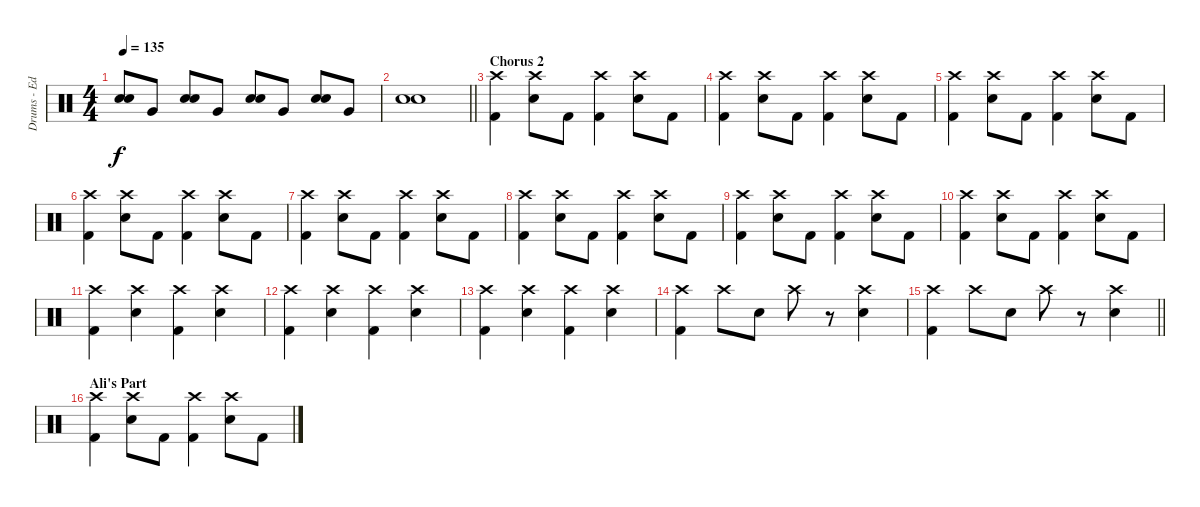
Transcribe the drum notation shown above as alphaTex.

\track ("Drums - Ed Edhus" "Drums - Ed") {instrument percussion bank 127}
\staff {score}
\articulation defaults
\ts (4 4)
\tempo 135
\clef neutral
\ks c
("Snare (hit) 2" "Snare (hit) 2").8{dy f} "Very Low Tom (hit)".8 ("Snare (hit) 2" "Snare (hit) 2").8 "Very Low Tom (hit)".8 ("Snare (hit) 2" "Snare (hit) 2").8 "Very Low Tom (hit)".8 ("Snare (hit) 2" "Snare (hit) 2").8 "Very Low Tom (hit)".8 |
\barLineRight lightlight
("Snare (hit) 2" "Snare (hit) 2").1 |
\section ("" "Chorus 2")
("Crash high (hit)" "Kick (hit) 2").4 ("Crash high (hit)" "Snare (hit) 2").8 "Kick (hit) 2".8 ("Crash high (hit)" "Kick (hit) 2").4 ("Crash high (hit)" "Snare (hit) 2").8 "Kick (hit) 2".8 |
("Crash high (hit)" "Kick (hit) 2").4 ("Crash high (hit)" "Snare (hit) 2").8 "Kick (hit) 2".8 ("Crash high (hit)" "Kick (hit) 2").4 ("Crash high (hit)" "Snare (hit) 2").8 "Kick (hit) 2".8 |
("Crash high (hit)" "Kick (hit) 2").4 ("Crash high (hit)" "Snare (hit) 2").8 "Kick (hit) 2".8 ("Crash high (hit)" "Kick (hit) 2").4 ("Crash high (hit)" "Snare (hit) 2").8 "Kick (hit) 2".8 |
("Crash high (hit)" "Kick (hit) 2").4 ("Crash high (hit)" "Snare (hit) 2").8 "Kick (hit) 2".8 ("Crash high (hit)" "Kick (hit) 2").4 ("Crash high (hit)" "Snare (hit) 2").8 "Kick (hit) 2".8 |
("Crash high (hit)" "Kick (hit) 2").4 ("Crash high (hit)" "Snare (hit) 2").8 "Kick (hit) 2".8 ("Crash high (hit)" "Kick (hit) 2").4 ("Crash high (hit)" "Snare (hit) 2").8 "Kick (hit) 2".8 |
("Crash high (hit)" "Kick (hit) 2").4 ("Crash high (hit)" "Snare (hit) 2").8 "Kick (hit) 2".8 ("Crash high (hit)" "Kick (hit) 2").4 ("Crash high (hit)" "Snare (hit) 2").8 "Kick (hit) 2".8 |
("Crash high (hit)" "Kick (hit) 2").4 ("Crash high (hit)" "Snare (hit) 2").8 "Kick (hit) 2".8 ("Crash high (hit)" "Kick (hit) 2").4 ("Crash high (hit)" "Snare (hit) 2").8 "Kick (hit) 2".8 |
("Crash high (hit)" "Kick (hit) 2").4 ("Crash high (hit)" "Snare (hit) 2").8 "Kick (hit) 2".8 ("Crash high (hit)" "Kick (hit) 2").4 ("Crash high (hit)" "Snare (hit) 2").8 "Kick (hit) 2".8 |
("Crash high (hit)" "Kick (hit) 2").4 ("Crash high (hit)" "Snare (hit) 2").4 ("Crash high (hit)" "Kick (hit) 2").4 ("Crash high (hit)" "Snare (hit) 2").4 |
("Crash high (hit)" "Kick (hit) 2").4 ("Crash high (hit)" "Snare (hit) 2").4 ("Crash high (hit)" "Kick (hit) 2").4 ("Crash high (hit)" "Snare (hit) 2").4 |
("Crash high (hit)" "Kick (hit) 2").4 ("Crash high (hit)" "Snare (hit) 2").4 ("Crash high (hit)" "Kick (hit) 2").4 ("Crash high (hit)" "Snare (hit) 2").4 |
("Crash high (hit)" "Kick (hit) 2").4 "Crash high (hit)".8 "Snare (hit) 2".8 "Crash high (hit)".8 r.8 ("Crash high (hit)" "Snare (hit) 2").4 |
\barLineRight lightlight
("Crash high (hit)" "Kick (hit) 2").4 "Crash high (hit)".8 "Snare (hit) 2".8 "Crash high (hit)".8 r.8 ("Crash high (hit)" "Snare (hit) 2").4 |
\section ("" "Ali's Part")
("Crash high (hit)" "Kick (hit) 2").4 ("Crash high (hit)" "Snare (hit) 2").8 "Kick (hit) 2".8 ("Crash high (hit)" "Kick (hit) 2").4 ("Crash high (hit)" "Snare (hit) 2").8 "Kick (hit) 2".8
